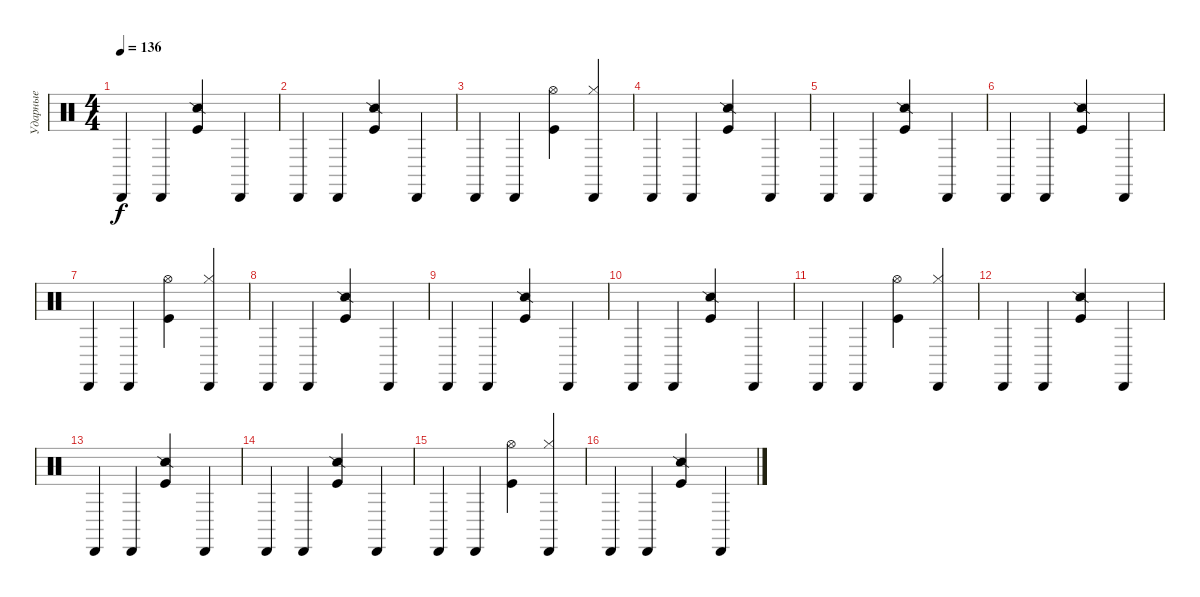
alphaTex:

\track ("Ударные" "Ударные") {instrument percussion}
\staff {score}
\articulation defaults
\ts (4 4)
\tempo 136
\clef neutral
\ks c "Cabasa (hit)".4{dy f} "Cabasa (hit)".4
("Snare (side stick) 2" "Kick (hit)").4 "Cabasa (hit)".4 |
"Cabasa (hit)".4 "Cabasa (hit)".4 ("Snare (side stick) 2" "Kick (hit)").4 "Cabasa (hit)".4 |
"Cabasa (hit)".4 "Cabasa (hit)".4 ("Hi-Hat (open)" "Kick (hit)").4 ("Hi-Hat (closed)" "Cabasa (hit)").4 |
"Cabasa (hit)".4 "Cabasa (hit)".4 ("Snare (side stick) 2" "Kick (hit)").4 "Cabasa (hit)".4 |
"Cabasa (hit)".4 "Cabasa (hit)".4 ("Snare (side stick) 2" "Kick (hit)").4 "Cabasa (hit)".4 |
"Cabasa (hit)".4 "Cabasa (hit)".4 ("Snare (side stick) 2" "Kick (hit)").4 "Cabasa (hit)".4 |
"Cabasa (hit)".4 "Cabasa (hit)".4 ("Hi-Hat (open)" "Kick (hit)").4 ("Hi-Hat (closed)" "Cabasa (hit)").4 |
"Cabasa (hit)".4 "Cabasa (hit)".4 ("Snare (side stick) 2" "Kick (hit)").4 "Cabasa (hit)".4 |
"Cabasa (hit)".4 "Cabasa (hit)".4 ("Snare (side stick) 2" "Kick (hit)").4 "Cabasa (hit)".4 |
"Cabasa (hit)".4 "Cabasa (hit)".4 ("Snare (side stick) 2" "Kick (hit)").4 "Cabasa (hit)".4 |
"Cabasa (hit)".4 "Cabasa (hit)".4 ("Hi-Hat (open)" "Kick (hit)").4 ("Hi-Hat (closed)" "Cabasa (hit)").4 |
"Cabasa (hit)".4 "Cabasa (hit)".4 ("Snare (side stick) 2" "Kick (hit)").4 "Cabasa (hit)".4 |
"Cabasa (hit)".4 "Cabasa (hit)".4 ("Snare (side stick) 2" "Kick (hit)").4 "Cabasa (hit)".4 |
"Cabasa (hit)".4 "Cabasa (hit)".4 ("Snare (side stick) 2" "Kick (hit)").4 "Cabasa (hit)".4 |
"Cabasa (hit)".4 "Cabasa (hit)".4 ("Hi-Hat (open)" "Kick (hit)").4 ("Hi-Hat (closed)" "Cabasa (hit)").4 |
"Cabasa (hit)".4 "Cabasa (hit)".4 ("Snare (side stick) 2" "Kick (hit)").4 "Cabasa (hit)".4
